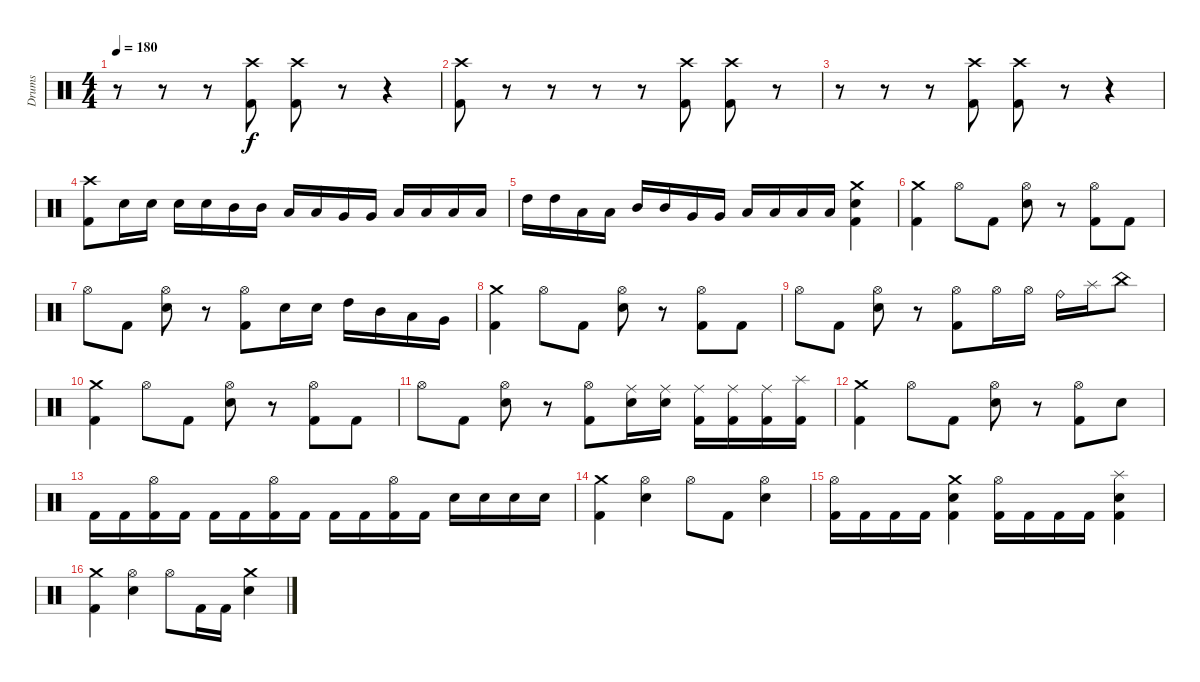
\track ("Drums" "Drums") {instrument percussion}
\staff {score}
\articulation defaults
\ts (4 4)
\tempo 180
\clef neutral
\ks c
r.8{dy f} r.8 r.8 ("Crash high (hit)" "Kick (hit) 2").8 ("Crash high (hit)" "Kick (hit) 2").8 r.8 r.4 |
("Crash high (hit)" "Kick (hit) 2").8 r.8 r.8 r.8 r.8 ("Crash high (hit)" "Kick (hit) 2").8 ("Crash high (hit)" "Kick (hit) 2").8 r.8 |
r.8 r.8 r.8 ("Crash high (hit)" "Kick (hit) 2").8 ("Crash high (hit)" "Kick (hit) 2").8 r.8 r.4 |
("Crash high (hit)" "Kick (hit) 2").8 "Electric Snare (hit)".16 "Electric Snare (hit)".16 "Electric Snare (hit)".16 "Electric Snare (hit)".16 "Mid Tom (hit)".16 "Mid Tom (hit)".16 "Low Tom (hit)".16 "Low Tom (hit)".16 "Very Low Tom (hit)".16 "Very Low Tom (hit)".16 "Low Floor Tom (hit)".16 "Low Floor Tom (hit)".16 "Low Floor Tom (hit)".16 "Low Floor Tom (hit)".16 |
"High Tom (hit)".16 "High Tom (hit)".16 "Low Tom (hit)".16 "Low Tom (hit)".16 "Mid Tom (hit)".16 "Mid Tom (hit)".16 "Very Low Tom (hit)".16 "Very Low Tom (hit)".16 "Low Tom (hit)".16 "Low Tom (hit)".16 "Low Floor Tom (hit)".16 "Low Floor Tom (hit)".16 ("Crash medium (hit)" "Electric Snare (hit)" "Kick (hit) 2").4 |
("Crash medium (hit)" "Kick (hit) 2").4 "Hi-Hat (open)".8 "Kick (hit) 2".8 ("Hi-Hat (open)" "Electric Snare (hit)").8 r.8 ("Hi-Hat (open)" "Kick (hit) 2").8 "Kick (hit) 2".8 |
"Hi-Hat (open)".8 "Kick (hit) 2".8 ("Hi-Hat (open)" "Electric Snare (hit)").8 r.8 ("Hi-Hat (open)" "Kick (hit) 2").8 "Electric Snare (hit)".16 "Electric Snare (hit)".16 "High Tom (hit)".16 "Mid Tom (hit)".16 "Low Tom (hit)".16 "Very Low Tom (hit)".16 |
("Crash medium (hit)" "Kick (hit) 2").4 "Hi-Hat (open)".8 "Kick (hit) 2".8 ("Hi-Hat (open)" "Electric Snare (hit)").8 r.8 ("Hi-Hat (open)" "Kick (hit) 2").8 "Kick (hit) 2".8 |
"Hi-Hat (open)".8 "Kick (hit) 2".8 ("Hi-Hat (open)" "Electric Snare (hit)").8 r.8 ("Hi-Hat (open)" "Kick (hit) 2").8 "Hi-Hat (open)".16 "Hi-Hat (open)".16 "Ride (bell)".16 "Splash (hit)".16 "China (hit)".8 |
("Crash medium (hit)" "Kick (hit) 2").4 "Hi-Hat (open)".8 "Kick (hit) 2".8 ("Hi-Hat (open)" "Electric Snare (hit)").8 r.8 ("Hi-Hat (open)" "Kick (hit) 2").8 "Kick (hit) 2".8 |
"Hi-Hat (open)".8 "Kick (hit) 2".8 ("Hi-Hat (open)" "Electric Snare (hit)").8 r.8 ("Hi-Hat (open)" "Kick (hit) 2").8 ("Ride (middle)" "Electric Snare (hit)").16 ("Ride (middle)" "Electric Snare (hit)").16 ("Ride (middle)" "Kick (hit) 2").16 ("Ride (middle)" "Kick (hit) 2").16 ("Ride (middle)" "Kick (hit) 2").16 ("Splash (hit)" "Kick (hit) 2").16 |
("Crash medium (hit)" "Kick (hit) 2").4 "Hi-Hat (open)".8 "Kick (hit) 2".8 ("Hi-Hat (open)" "Electric Snare (hit)").8 r.8 ("Hi-Hat (open)" "Kick (hit) 2").8 "Electric Snare (hit)".8 |
"Kick (hit) 2".16 "Kick (hit) 2".16 ("Hi-Hat (open)" "Kick (hit) 2").16 "Kick (hit) 2".16 "Kick (hit) 2".16 "Kick (hit) 2".16 ("Hi-Hat (open)" "Kick (hit) 2").16 "Kick (hit) 2".16 "Kick (hit) 2".16 "Kick (hit) 2".16 ("Hi-Hat (open)" "Kick (hit) 2").16 "Kick (hit) 2".16 "Electric Snare (hit)".16 "Electric Snare (hit)".16 "Electric Snare (hit)".16 "Electric Snare (hit)".16 |
("Crash medium (hit)" "Kick (hit) 2").4 ("Hi-Hat (open)" "Electric Snare (hit)").4 "Hi-Hat (open)".8 "Kick (hit) 2".8 ("Hi-Hat (open)" "Electric Snare (hit)").4 |
("Hi-Hat (open)" "Kick (hit) 2").16 "Kick (hit) 2".16 "Kick (hit) 2".16 "Kick (hit) 2".16 ("Crash medium (hit)" "Electric Snare (hit)" "Kick (hit) 2").4 ("Hi-Hat (open)" "Kick (hit) 2").16 "Kick (hit) 2".16 "Kick (hit) 2".16 "Kick (hit) 2".16 ("Splash (hit)" "Electric Snare (hit)" "Kick (hit) 2").4 |
("Crash medium (hit)" "Kick (hit) 2").4 ("Hi-Hat (open)" "Electric Snare (hit)").4 "Hi-Hat (open)".8 "Kick (hit) 2".16 "Kick (hit) 2".16 ("Crash medium (hit)" "Electric Snare (hit)").4
